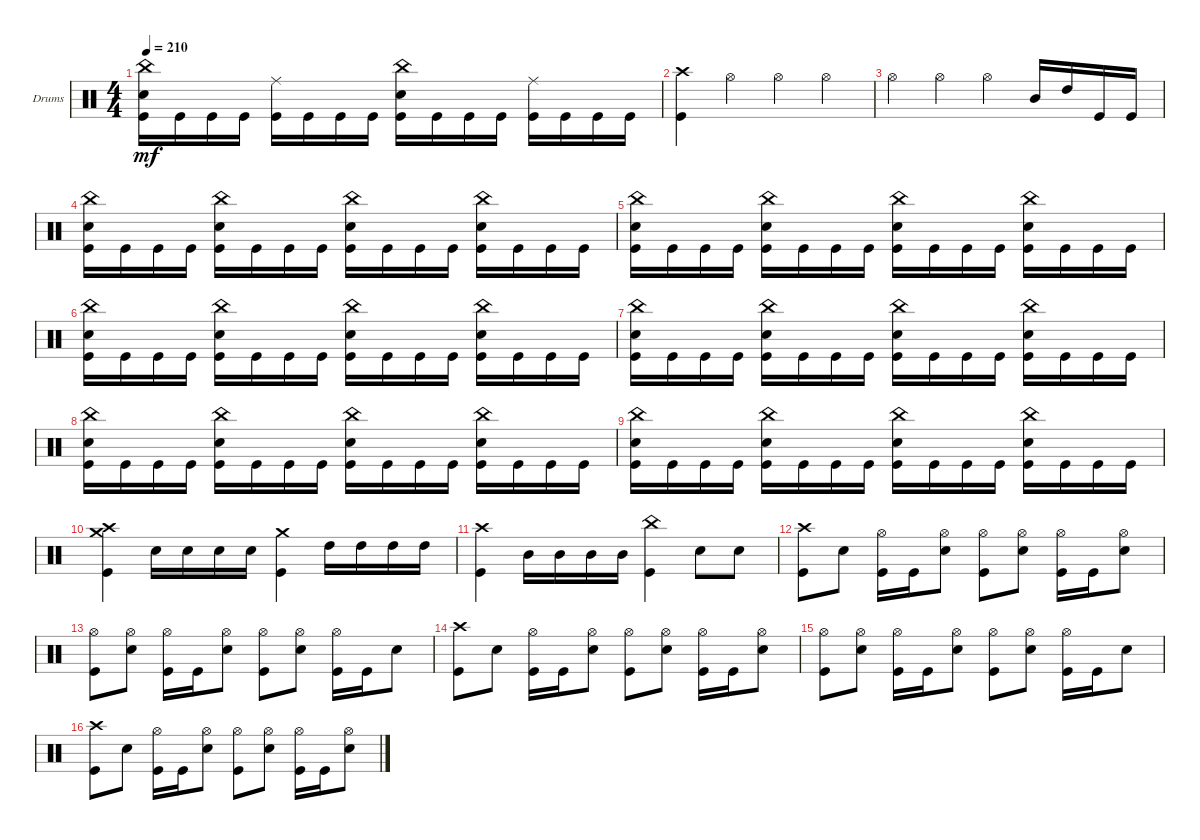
\bracketExtendMode groupsimilarinstruments
\firstSystemTrackNameOrientation horizontal
\otherSystemsTrackNameOrientation horizontal
\track ("Drumkit" "Drums") {instrument percussion}
\staff {score}
\articulation defaults
\ts (4 4)
\tempo 210
\clef neutral
\ks c
("Snare (hit) 2" "Kick (hit)" "China (hit)").16{dy mf} "Kick (hit)".16 "Kick (hit)".16 "Kick (hit)".16 ("Kick (hit)" "Ride (middle)").16 "Kick (hit)".16 "Kick (hit)".16 "Kick (hit)".16 ("Kick (hit)" "Snare (hit) 2" "China (hit)").16 "Kick (hit)".16 "Kick (hit)".16 "Kick (hit)".16 ("Kick (hit)" "Ride (middle)").16 "Kick (hit)".16 "Kick (hit)".16 "Kick (hit)".16 |
("Kick (hit)" "Crash high (hit)").4 "Hi-Hat (open)".4 "Hi-Hat (open)".4 "Hi-Hat (open)".4 |
"Hi-Hat (open)".4 "Hi-Hat (open)".4 "Hi-Hat (open)".4 "Mid Tom (hit)".16 "High Tom (hit)".16 "Kick (hit)".16 "Kick (hit)".16 |
("Kick (hit)" "Snare (hit) 2" "China (hit)").16 "Kick (hit)".16 "Kick (hit)".16 "Kick (hit)".16 ("Kick (hit)" "Snare (hit) 2" "China (hit)").16 "Kick (hit)".16 "Kick (hit)".16 "Kick (hit)".16 ("Kick (hit)" "Snare (hit) 2" "China (hit)").16 "Kick (hit)".16 "Kick (hit)".16 "Kick (hit)".16 ("Kick (hit)" "Snare (hit) 2" "China (hit)").16 "Kick (hit)".16 "Kick (hit)".16 "Kick (hit)".16 |
("Kick (hit)" "Snare (hit) 2" "China (hit)").16 "Kick (hit)".16 "Kick (hit)".16 "Kick (hit)".16 ("Kick (hit)" "Snare (hit) 2" "China (hit)").16 "Kick (hit)".16 "Kick (hit)".16 "Kick (hit)".16 ("Kick (hit)" "Snare (hit) 2" "China (hit)").16 "Kick (hit)".16 "Kick (hit)".16 "Kick (hit)".16 ("Kick (hit)" "Snare (hit) 2" "China (hit)").16 "Kick (hit)".16 "Kick (hit)".16 "Kick (hit)".16 |
("Kick (hit)" "Snare (hit) 2" "China (hit)").16 "Kick (hit)".16 "Kick (hit)".16 "Kick (hit)".16 ("Kick (hit)" "Snare (hit) 2" "China (hit)").16 "Kick (hit)".16 "Kick (hit)".16 "Kick (hit)".16 ("Kick (hit)" "Snare (hit) 2" "China (hit)").16 "Kick (hit)".16 "Kick (hit)".16 "Kick (hit)".16 ("Kick (hit)" "Snare (hit) 2" "China (hit)").16 "Kick (hit)".16 "Kick (hit)".16 "Kick (hit)".16 |
("Kick (hit)" "Snare (hit) 2" "China (hit)").16 "Kick (hit)".16 "Kick (hit)".16 "Kick (hit)".16 ("Kick (hit)" "Snare (hit) 2" "China (hit)").16 "Kick (hit)".16 "Kick (hit)".16 "Kick (hit)".16 ("Kick (hit)" "Snare (hit) 2" "China (hit)").16 "Kick (hit)".16 "Kick (hit)".16 "Kick (hit)".16 ("Kick (hit)" "Snare (hit) 2" "China (hit)").16 "Kick (hit)".16 "Kick (hit)".16 "Kick (hit)".16 |
("Kick (hit)" "Snare (hit) 2" "China (hit)").16 "Kick (hit)".16 "Kick (hit)".16 "Kick (hit)".16 ("Kick (hit)" "Snare (hit) 2" "China (hit)").16 "Kick (hit)".16 "Kick (hit)".16 "Kick (hit)".16 ("Kick (hit)" "Snare (hit) 2" "China (hit)").16 "Kick (hit)".16 "Kick (hit)".16 "Kick (hit)".16 ("Kick (hit)" "Snare (hit) 2" "China (hit)").16 "Kick (hit)".16 "Kick (hit)".16 "Kick (hit)".16 |
("Kick (hit)" "Snare (hit) 2" "China (hit)").16 "Kick (hit)".16 "Kick (hit)".16 "Kick (hit)".16 ("Kick (hit)" "Snare (hit) 2" "China (hit)").16 "Kick (hit)".16 "Kick (hit)".16 "Kick (hit)".16 ("Kick (hit)" "Snare (hit) 2" "China (hit)").16 "Kick (hit)".16 "Kick (hit)".16 "Kick (hit)".16 ("Kick (hit)" "Snare (hit) 2" "China (hit)").16 "Kick (hit)".16 "Kick (hit)".16 "Kick (hit)".16 |
("Kick (hit)" "Crash medium (hit)" "Crash high (hit)").4 "Snare (hit) 2".16 "Snare (hit) 2".16 "Snare (hit) 2".16 "Snare (hit) 2".16 ("Kick (hit)" "Crash medium (hit)").4 "High Tom (hit)".16 "High Tom (hit)".16 "High Tom (hit)".16 "High Tom (hit)".16 |
("Kick (hit)" "Crash high (hit)").4 "Mid Tom (hit)".16 "Mid Tom (hit)".16 "Mid Tom (hit)".16 "Mid Tom (hit)".16 ("Kick (hit)" "China (hit)").4 "Snare (hit) 2".8 "Snare (hit) 2".8 |
("Kick (hit)" "Crash high (hit)").8 "Snare (hit) 2".8 ("Hi-Hat (open)" "Kick (hit)").16 "Kick (hit)".16 ("Hi-Hat (open)" "Snare (hit) 2").8 ("Hi-Hat (open)" "Kick (hit)").8 ("Hi-Hat (open)" "Snare (hit) 2").8 ("Hi-Hat (open)" "Kick (hit)").16 "Kick (hit)".16 ("Hi-Hat (open)" "Snare (hit) 2").8 |
("Hi-Hat (open)" "Kick (hit)").8 ("Hi-Hat (open)" "Snare (hit) 2").8 ("Hi-Hat (open)" "Kick (hit)").16 "Kick (hit)".16 ("Hi-Hat (open)" "Snare (hit) 2").8 ("Hi-Hat (open)" "Kick (hit)").8 ("Hi-Hat (open)" "Snare (hit) 2").8 ("Hi-Hat (open)" "Kick (hit)").16 "Kick (hit)".16 "Snare (hit) 2".8 |
("Kick (hit)" "Crash high (hit)").8 "Snare (hit) 2".8 ("Hi-Hat (open)" "Kick (hit)").16 "Kick (hit)".16 ("Hi-Hat (open)" "Snare (hit) 2").8 ("Hi-Hat (open)" "Kick (hit)").8 ("Hi-Hat (open)" "Snare (hit) 2").8 ("Hi-Hat (open)" "Kick (hit)").16 "Kick (hit)".16 ("Hi-Hat (open)" "Snare (hit) 2").8 |
("Hi-Hat (open)" "Kick (hit)").8 ("Hi-Hat (open)" "Snare (hit) 2").8 ("Hi-Hat (open)" "Kick (hit)").16 "Kick (hit)".16 ("Hi-Hat (open)" "Snare (hit) 2").8 ("Hi-Hat (open)" "Kick (hit)").8 ("Hi-Hat (open)" "Snare (hit) 2").8 ("Hi-Hat (open)" "Kick (hit)").16 "Kick (hit)".16 "Snare (hit) 2".8 |
("Kick (hit)" "Crash high (hit)").8 "Snare (hit) 2".8 ("Hi-Hat (open)" "Kick (hit)").16 "Kick (hit)".16 ("Hi-Hat (open)" "Snare (hit) 2").8 ("Hi-Hat (open)" "Kick (hit)").8 ("Hi-Hat (open)" "Snare (hit) 2").8 ("Hi-Hat (open)" "Kick (hit)").16 "Kick (hit)".16 ("Hi-Hat (open)" "Snare (hit) 2").8
